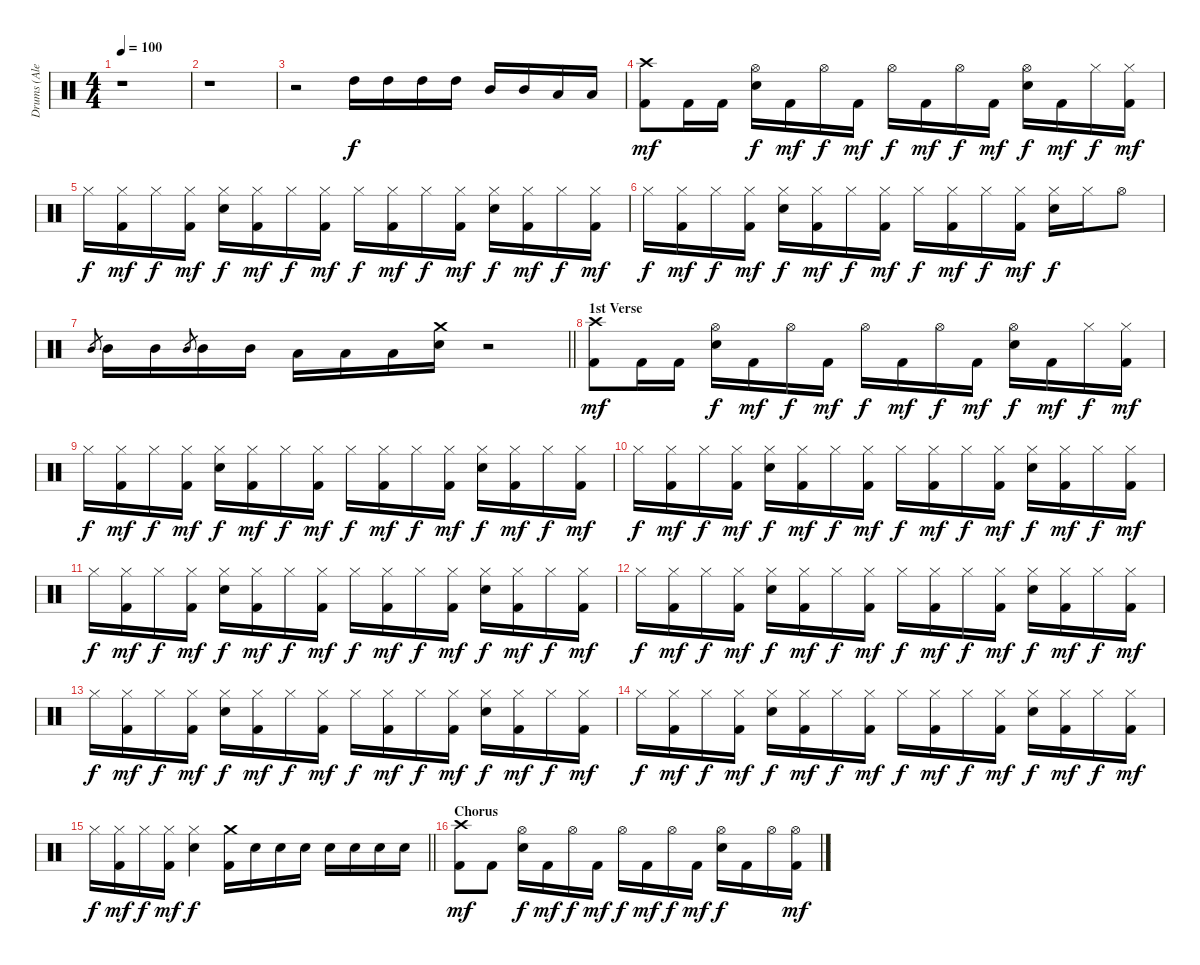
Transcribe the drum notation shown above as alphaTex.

\track ("Drums (Alex Van Halen)" "Drums (Ale") {instrument percussion}
\staff {score}
\articulation defaults
\ts (4 4)
\tempo 100
\clef neutral
\ks c
r.1{dy f} |
r.1 |
r.2 "High Tom (hit)".16 "High Tom (hit)".16 "High Tom (hit)".16 "High Tom (hit)".16 "Mid Tom (hit)".16 "Mid Tom (hit)".16 "Low Tom (hit)".16 "Low Tom (hit)".16 |
("Kick (hit) 2" "Crash high (hit)").8{dy mf} "Kick (hit) 2".16 "Kick (hit) 2".16 ("Snare (hit) 2" "Hi-Hat (open)").16{dy f} "Kick (hit) 2".16{dy mf} "Hi-Hat (open)".16{dy f} "Kick (hit) 2".16{dy mf} "Hi-Hat (open)".16{dy f} "Kick (hit) 2".16{dy mf} "Hi-Hat (open)".16{dy f} "Kick (hit) 2".16{dy mf} ("Snare (hit) 2" "Hi-Hat (open)").16{dy f} "Kick (hit) 2".16{dy mf} "Hi-Hat (closed)".16{dy f} ("Kick (hit) 2" "Hi-Hat (closed)").16{dy mf} |
"Hi-Hat (closed)".16{dy f} ("Kick (hit) 2" "Hi-Hat (closed)").16{dy mf} "Hi-Hat (closed)".16{dy f} ("Kick (hit) 2" "Hi-Hat (closed)").16{dy mf} ("Snare (hit) 2" "Hi-Hat (closed)").16{dy f} ("Kick (hit) 2" "Hi-Hat (closed)").16{dy mf} "Hi-Hat (closed)".16{dy f} ("Kick (hit) 2" "Hi-Hat (closed)").16{dy mf} "Hi-Hat (closed)".16{dy f} ("Kick (hit) 2" "Hi-Hat (closed)").16{dy mf} "Hi-Hat (closed)".16{dy f} ("Kick (hit) 2" "Hi-Hat (closed)").16{dy mf} ("Snare (hit) 2" "Hi-Hat (closed)").16{dy f} ("Kick (hit) 2" "Hi-Hat (closed)").16{dy mf} "Hi-Hat (closed)".16{dy f} ("Kick (hit) 2" "Hi-Hat (closed)").16{dy mf} |
"Hi-Hat (closed)".16{dy f} ("Kick (hit) 2" "Hi-Hat (closed)").16{dy mf} "Hi-Hat (closed)".16{dy f} ("Kick (hit) 2" "Hi-Hat (closed)").16{dy mf} ("Snare (hit) 2" "Hi-Hat (closed)").16{dy f} ("Kick (hit) 2" "Hi-Hat (closed)").16{dy mf} "Hi-Hat (closed)".16{dy f} ("Kick (hit) 2" "Hi-Hat (closed)").16{dy mf} "Hi-Hat (closed)".16{dy f} ("Kick (hit) 2" "Hi-Hat (closed)").16{dy mf} "Hi-Hat (closed)".16{dy f} ("Kick (hit) 2" "Hi-Hat (closed)").16{dy mf} ("Snare (hit) 2" "Hi-Hat (closed)").16{dy f} "Hi-Hat (closed)".16 "Hi-Hat (open)".8 |
\barLineRight lightlight "Mid Tom (hit)".8{gr} "Mid Tom (hit)".16 "Mid Tom (hit)".16 "Mid Tom (hit)".8{gr} "Mid Tom (hit)".16 "Mid Tom (hit)".16 "Low Tom (hit)".16 "Low Tom (hit)".16 "Low Tom (hit)".16
("Snare (hit) 2" "Crash medium (hit)").16 r.2 |
\section ("" "1st Verse")
("Kick (hit) 2" "Crash high (hit)").8{dy mf} "Kick (hit) 2".16 "Kick (hit) 2".16 ("Snare (hit) 2" "Hi-Hat (open)").16{dy f} "Kick (hit) 2".16{dy mf} "Hi-Hat (open)".16{dy f} "Kick (hit) 2".16{dy mf} "Hi-Hat (open)".16{dy f} "Kick (hit) 2".16{dy mf} "Hi-Hat (open)".16{dy f} "Kick (hit) 2".16{dy mf} ("Snare (hit) 2" "Hi-Hat (open)").16{dy f} "Kick (hit) 2".16{dy mf} "Hi-Hat (closed)".16{dy f} ("Kick (hit) 2" "Hi-Hat (closed)").16{dy mf} |
"Hi-Hat (closed)".16{dy f} ("Kick (hit) 2" "Hi-Hat (closed)").16{dy mf} "Hi-Hat (closed)".16{dy f} ("Kick (hit) 2" "Hi-Hat (closed)").16{dy mf} ("Snare (hit) 2" "Hi-Hat (closed)").16{dy f} ("Kick (hit) 2" "Hi-Hat (closed)").16{dy mf} "Hi-Hat (closed)".16{dy f} ("Kick (hit) 2" "Hi-Hat (closed)").16{dy mf} "Hi-Hat (closed)".16{dy f} ("Kick (hit) 2" "Hi-Hat (closed)").16{dy mf} "Hi-Hat (closed)".16{dy f} ("Kick (hit) 2" "Hi-Hat (closed)").16{dy mf} ("Snare (hit) 2" "Hi-Hat (closed)").16{dy f} ("Kick (hit) 2" "Hi-Hat (closed)").16{dy mf} "Hi-Hat (closed)".16{dy f} ("Kick (hit) 2" "Hi-Hat (closed)").16{dy mf} |
"Hi-Hat (closed)".16{dy f} ("Kick (hit) 2" "Hi-Hat (closed)").16{dy mf} "Hi-Hat (closed)".16{dy f} ("Kick (hit) 2" "Hi-Hat (closed)").16{dy mf} ("Snare (hit) 2" "Hi-Hat (closed)").16{dy f} ("Kick (hit) 2" "Hi-Hat (closed)").16{dy mf} "Hi-Hat (closed)".16{dy f} ("Kick (hit) 2" "Hi-Hat (closed)").16{dy mf} "Hi-Hat (closed)".16{dy f} ("Kick (hit) 2" "Hi-Hat (closed)").16{dy mf} "Hi-Hat (closed)".16{dy f} ("Kick (hit) 2" "Hi-Hat (closed)").16{dy mf} ("Snare (hit) 2" "Hi-Hat (closed)").16{dy f} ("Kick (hit) 2" "Hi-Hat (closed)").16{dy mf} "Hi-Hat (closed)".16{dy f} ("Kick (hit) 2" "Hi-Hat (closed)").16{dy mf} |
"Hi-Hat (closed)".16{dy f} ("Kick (hit) 2" "Hi-Hat (closed)").16{dy mf} "Hi-Hat (closed)".16{dy f} ("Kick (hit) 2" "Hi-Hat (closed)").16{dy mf} ("Snare (hit) 2" "Hi-Hat (closed)").16{dy f} ("Kick (hit) 2" "Hi-Hat (closed)").16{dy mf} "Hi-Hat (closed)".16{dy f} ("Kick (hit) 2" "Hi-Hat (closed)").16{dy mf} "Hi-Hat (closed)".16{dy f} ("Kick (hit) 2" "Hi-Hat (closed)").16{dy mf} "Hi-Hat (closed)".16{dy f} ("Kick (hit) 2" "Hi-Hat (closed)").16{dy mf} ("Snare (hit) 2" "Hi-Hat (closed)").16{dy f} ("Kick (hit) 2" "Hi-Hat (closed)").16{dy mf} "Hi-Hat (closed)".16{dy f} ("Kick (hit) 2" "Hi-Hat (closed)").16{dy mf} |
"Hi-Hat (closed)".16{dy f} ("Kick (hit) 2" "Hi-Hat (closed)").16{dy mf} "Hi-Hat (closed)".16{dy f} ("Kick (hit) 2" "Hi-Hat (closed)").16{dy mf} ("Snare (hit) 2" "Hi-Hat (closed)").16{dy f} ("Kick (hit) 2" "Hi-Hat (closed)").16{dy mf} "Hi-Hat (closed)".16{dy f} ("Kick (hit) 2" "Hi-Hat (closed)").16{dy mf} "Hi-Hat (closed)".16{dy f} ("Kick (hit) 2" "Hi-Hat (closed)").16{dy mf} "Hi-Hat (closed)".16{dy f} ("Kick (hit) 2" "Hi-Hat (closed)").16{dy mf} ("Snare (hit) 2" "Hi-Hat (closed)").16{dy f} ("Kick (hit) 2" "Hi-Hat (closed)").16{dy mf} "Hi-Hat (closed)".16{dy f} ("Kick (hit) 2" "Hi-Hat (closed)").16{dy mf} |
"Hi-Hat (closed)".16{dy f} ("Kick (hit) 2" "Hi-Hat (closed)").16{dy mf} "Hi-Hat (closed)".16{dy f} ("Kick (hit) 2" "Hi-Hat (closed)").16{dy mf} ("Snare (hit) 2" "Hi-Hat (closed)").16{dy f} ("Kick (hit) 2" "Hi-Hat (closed)").16{dy mf} "Hi-Hat (closed)".16{dy f} ("Kick (hit) 2" "Hi-Hat (closed)").16{dy mf} "Hi-Hat (closed)".16{dy f} ("Kick (hit) 2" "Hi-Hat (closed)").16{dy mf} "Hi-Hat (closed)".16{dy f} ("Kick (hit) 2" "Hi-Hat (closed)").16{dy mf} ("Snare (hit) 2" "Hi-Hat (closed)").16{dy f} ("Kick (hit) 2" "Hi-Hat (closed)").16{dy mf} "Hi-Hat (closed)".16{dy f} ("Kick (hit) 2" "Hi-Hat (closed)").16{dy mf} |
"Hi-Hat (closed)".16{dy f} ("Kick (hit) 2" "Hi-Hat (closed)").16{dy mf} "Hi-Hat (closed)".16{dy f} ("Kick (hit) 2" "Hi-Hat (closed)").16{dy mf} ("Snare (hit) 2" "Hi-Hat (closed)").16{dy f} ("Kick (hit) 2" "Hi-Hat (closed)").16{dy mf} "Hi-Hat (closed)".16{dy f} ("Kick (hit) 2" "Hi-Hat (closed)").16{dy mf} "Hi-Hat (closed)".16{dy f} ("Kick (hit) 2" "Hi-Hat (closed)").16{dy mf} "Hi-Hat (closed)".16{dy f} ("Kick (hit) 2" "Hi-Hat (closed)").16{dy mf} ("Snare (hit) 2" "Hi-Hat (closed)").16{dy f} ("Kick (hit) 2" "Hi-Hat (closed)").16{dy mf} "Hi-Hat (closed)".16{dy f} ("Kick (hit) 2" "Hi-Hat (closed)").16{dy mf} |
\barLineRight lightlight "Hi-Hat (closed)".16{dy f}
("Kick (hit) 2" "Hi-Hat (closed)").16{dy mf} "Hi-Hat (closed)".16{dy f} ("Kick (hit) 2" "Hi-Hat (closed)").16{dy mf} ("Snare (hit) 2" "Hi-Hat (closed)").4{dy f} ("Kick (hit) 2" "Crash medium (hit)").16 "Snare (hit) 2".16 "Snare (hit) 2".16 "Snare (hit) 2".16 "Snare (hit) 2".16 "Snare (hit) 2".16 "Snare (hit) 2".16 "Snare (hit) 2".16 |
\section ("" "Chorus")
("Kick (hit) 2" "Crash high (hit)").8{dy mf} "Kick (hit) 2".8 ("Snare (hit) 2" "Hi-Hat (open)").16{dy f} "Kick (hit) 2".16{dy mf} "Hi-Hat (open)".16{dy f} "Kick (hit) 2".16{dy mf} "Hi-Hat (open)".16{dy f} "Kick (hit) 2".16{dy mf} "Hi-Hat (open)".16{dy f} "Kick (hit) 2".16{dy mf} ("Snare (hit) 2" "Hi-Hat (open)").16{dy f} "Kick (hit) 2".16 "Hi-Hat (open)".16 ("Kick (hit) 2" "Hi-Hat (open)").16{dy mf}
